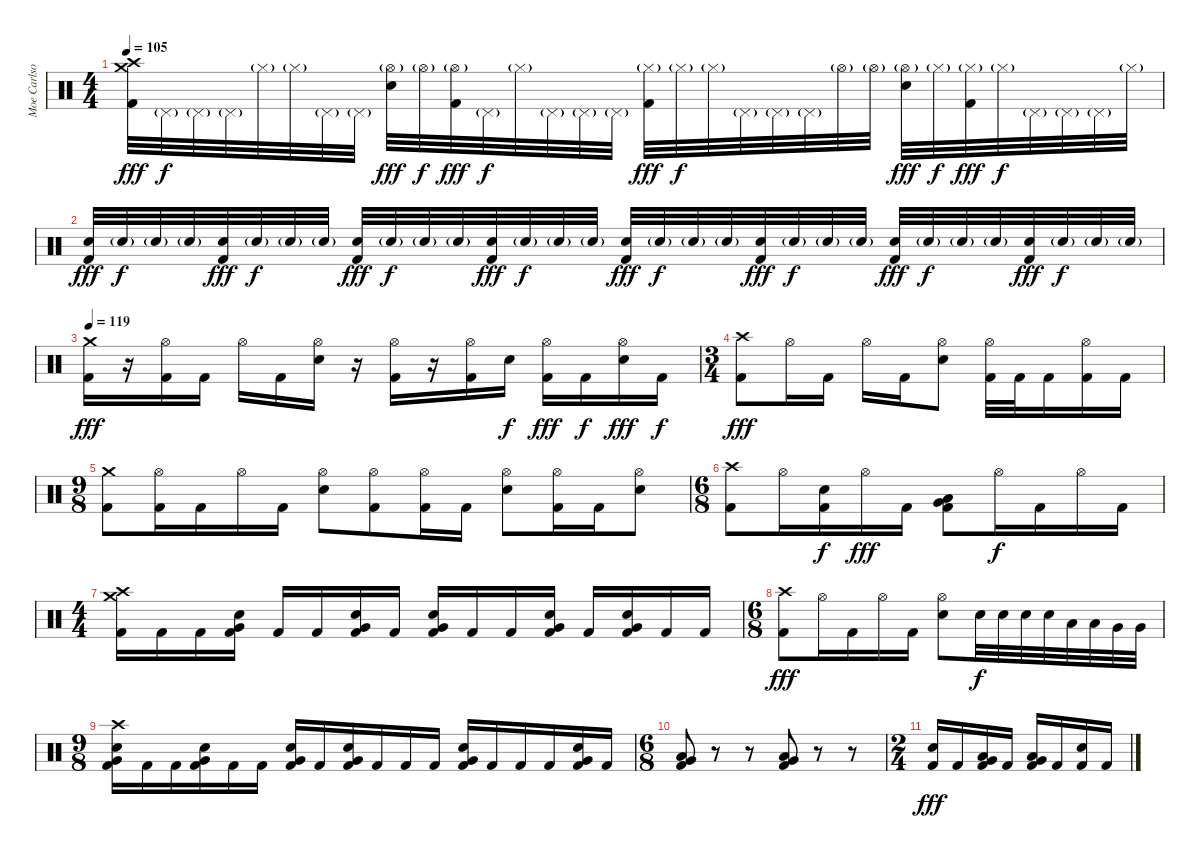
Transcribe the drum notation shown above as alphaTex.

\track ("Moe Carlson" "Moe Carlso") {instrument percussion}
\staff {score}
\articulation defaults
\ts (4 4)
\tempo 105
\clef neutral
\ks c
("Crash high (hit)" "Crash medium (hit)" "Kick (hit) 2").32{dy fff} "Pedal Hi-Hat (hit)"{g}.32{dy f} "Pedal Hi-Hat (hit)"{g}.32 "Pedal Hi-Hat (hit)"{g}.32 "Hi-Hat (closed)"{g}.32 "Hi-Hat (closed)"{g}.32 "Pedal Hi-Hat (hit)"{g}.32 "Pedal Hi-Hat (hit)"{g}.32 ("Hi-Hat (open)"{g} "Electric Snare (hit)").32{dy fff} "Hi-Hat (open)"{g}.32{dy f} ("Hi-Hat (open)"{g} "Kick (hit) 2").32{dy fff} "Pedal Hi-Hat (hit)"{g}.32{dy f} "Hi-Hat (closed)"{g}.32 "Pedal Hi-Hat (hit)"{g}.32 "Pedal Hi-Hat (hit)"{g}.32 "Pedal Hi-Hat (hit)"{g}.32 ("Hi-Hat (closed)"{g} "Kick (hit) 2").32{dy fff} "Hi-Hat (closed)"{g}.32{dy f} "Hi-Hat (closed)"{g}.32 "Pedal Hi-Hat (hit)"{g}.32 "Pedal Hi-Hat (hit)"{g}.32 "Pedal Hi-Hat (hit)"{g}.32 "Hi-Hat (open)"{g}.32 "Hi-Hat (open)"{g}.32 ("Hi-Hat (open)"{g} "Electric Snare (hit)").32{dy fff} "Hi-Hat (closed)"{g}.32{dy f} ("Hi-Hat (closed)"{g} "Kick (hit) 2").32{dy fff} "Hi-Hat (closed)"{g}.32{dy f} "Pedal Hi-Hat (hit)"{g}.32 "Pedal Hi-Hat (hit)"{g}.32 "Pedal Hi-Hat (hit)"{g}.32 "Hi-Hat (closed)"{g}.32 |
("Electric Snare (hit)" "Kick (hit) 2").32{dy fff} "Electric Snare (hit)"{g}.32{dy f} "Electric Snare (hit)"{g}.32 "Electric Snare (hit)"{g}.32 ("Electric Snare (hit)" "Kick (hit) 2").32{dy fff} "Electric Snare (hit)"{g}.32{dy f} "Electric Snare (hit)"{g}.32 "Electric Snare (hit)"{g}.32 ("Electric Snare (hit)" "Kick (hit) 2").32{dy fff} "Electric Snare (hit)"{g}.32{dy f} "Electric Snare (hit)"{g}.32 "Electric Snare (hit)"{g}.32 ("Electric Snare (hit)" "Kick (hit) 2").32{dy fff} "Electric Snare (hit)"{g}.32{dy f} "Electric Snare (hit)"{g}.32 "Electric Snare (hit)"{g}.32 ("Electric Snare (hit)" "Kick (hit) 2").32{dy fff} "Electric Snare (hit)"{g}.32{dy f} "Electric Snare (hit)"{g}.32 "Electric Snare (hit)"{g}.32 ("Electric Snare (hit)" "Kick (hit) 2").32{dy fff} "Electric Snare (hit)"{g}.32{dy f} "Electric Snare (hit)"{g}.32 "Electric Snare (hit)"{g}.32 ("Electric Snare (hit)" "Kick (hit) 2").32{dy fff} "Electric Snare (hit)"{g}.32{dy f} "Electric Snare (hit)"{g}.32 "Electric Snare (hit)"{g}.32 ("Electric Snare (hit)" "Kick (hit) 2").32{dy fff} "Electric Snare (hit)"{g}.32{dy f} "Electric Snare (hit)"{g}.32 "Electric Snare (hit)"{g}.32 |
\tempo 120
\tempo 119
("Crash medium (hit)" "Kick (hit) 2").16{dy fff} r.16 ("Hi-Hat (open)" "Kick (hit) 2").16 "Kick (hit) 2".16 "Hi-Hat (open)".16 "Kick (hit) 2".16 ("Hi-Hat (open)" "Electric Snare (hit)").16 r.16 ("Hi-Hat (open)" "Kick (hit) 2").16 r.16 ("Hi-Hat (open)" "Kick (hit) 2").16 "Electric Snare (hit)".16{dy f} ("Hi-Hat (open)" "Kick (hit) 2").16{dy fff} "Kick (hit) 2".16{dy f} ("Hi-Hat (open)" "Electric Snare (hit)").16{dy fff} "Kick (hit) 2".16{dy f} |
\ts (3 4)
("Crash high (hit)" "Kick (hit) 2").8{dy fff} "Hi-Hat (open)".16 "Kick (hit) 2".16 "Hi-Hat (open)".16 "Kick (hit) 2".16 ("Hi-Hat (open)" "Electric Snare (hit)").8 ("Hi-Hat (open)" "Kick (hit) 2").32 "Kick (hit) 2".32 "Kick (hit) 2".16 ("Hi-Hat (open)" "Kick (hit) 2").16 "Kick (hit) 2".16 |
\ts (9 8)
("Crash medium (hit)" "Kick (hit) 2").8 ("Hi-Hat (open)" "Kick (hit) 2").16 "Kick (hit) 2".16 "Hi-Hat (open)".16 "Kick (hit) 2".16 ("Hi-Hat (open)" "Electric Snare (hit)").8 ("Hi-Hat (open)" "Kick (hit) 2").8 ("Hi-Hat (open)" "Kick (hit) 2").16 "Kick (hit) 2".16 ("Hi-Hat (open)" "Electric Snare (hit)").8 ("Hi-Hat (open)" "Kick (hit) 2").16 "Kick (hit) 2".16 ("Hi-Hat (open)" "Electric Snare (hit)").8 |
\ts (6 8)
("Crash high (hit)" "Kick (hit) 2").8 "Hi-Hat (open)".16 ("Electric Snare (hit)" "Kick (hit) 2").16{dy f} "Hi-Hat (open)".16{dy fff} "Kick (hit) 2".16 ("Low Tom (hit)" "Very Low Tom (hit)" "Kick (hit) 2").8 "Hi-Hat (open)".16{dy f} "Kick (hit) 2".16 "Hi-Hat (open)".16 "Kick (hit) 2".16 |
\ts (4 4)
("Crash medium (hit)" "Crash high (hit)" "Kick (hit) 2").16 "Kick (hit) 2".16 "Kick (hit) 2".16 ("Electric Snare (hit)" "Very Low Tom (hit)" "Kick (hit) 2").16 "Kick (hit) 2".16 "Kick (hit) 2".16 ("Electric Snare (hit)" "Very Low Tom (hit)" "Kick (hit) 2").16 "Kick (hit) 2".16 ("Electric Snare (hit)" "Very Low Tom (hit)" "Kick (hit) 2").16 "Kick (hit) 2".16 "Kick (hit) 2".16 ("Electric Snare (hit)" "Very Low Tom (hit)" "Kick (hit) 2").16 "Kick (hit) 2".16 ("Electric Snare (hit)" "Very Low Tom (hit)" "Kick (hit) 2").16 "Kick (hit) 2".16 "Kick (hit) 2".16 |
\ts (6 8)
("Crash high (hit)" "Kick (hit) 2").8{dy fff} "Hi-Hat (open)".16 "Kick (hit) 2".16 "Hi-Hat (open)".16 "Kick (hit) 2".16 ("Hi-Hat (open)" "Electric Snare (hit)").8 "Electric Snare (hit)".32{dy f} "Electric Snare (hit)".32 "Electric Snare (hit)".32 "Electric Snare (hit)".32 "Low Tom (hit)".32 "Low Tom (hit)".32 "Very Low Tom (hit)".32 "Very Low Tom (hit)".32 |
\ts (9 8)
("Crash high (hit)" "Electric Snare (hit)" "Very Low Tom (hit)" "Kick (hit) 2").16 "Kick (hit) 2".16 "Kick (hit) 2".16 ("Electric Snare (hit)" "Very Low Tom (hit)" "Kick (hit) 2").16 "Kick (hit) 2".16 "Kick (hit) 2".16 ("Electric Snare (hit)" "Very Low Tom (hit)" "Kick (hit) 2").16 "Kick (hit) 2".16 ("Electric Snare (hit)" "Very Low Tom (hit)" "Kick (hit) 2").16 "Kick (hit) 2".16 "Kick (hit) 2".16 "Kick (hit) 2".16 ("Electric Snare (hit)" "Very Low Tom (hit)" "Kick (hit) 2").16 "Kick (hit) 2".16 "Kick (hit) 2".16 "Kick (hit) 2".16 ("Electric Snare (hit)" "Very Low Tom (hit)" "Kick (hit) 2").16 "Kick (hit) 2".16 |
\ts (6 8)
("Low Tom (hit)" "Very Low Tom (hit)" "Kick (hit) 2").8 r.8 r.8 ("Low Tom (hit)" "Very Low Tom (hit)" "Kick (hit) 2").8 r.8 r.8 |
\ts (2 4)
("Electric Snare (hit)" "Kick (hit) 2").16{dy fff} "Kick (hit) 2".16 ("Low Tom (hit)" "Very Low Tom (hit)" "Kick (hit) 2").16 "Kick (hit) 2".16 ("Low Tom (hit)" "Very Low Tom (hit)" "Kick (hit) 2").16 "Kick (hit) 2".16 ("Electric Snare (hit)" "Kick (hit) 2").16 "Kick (hit) 2".16
